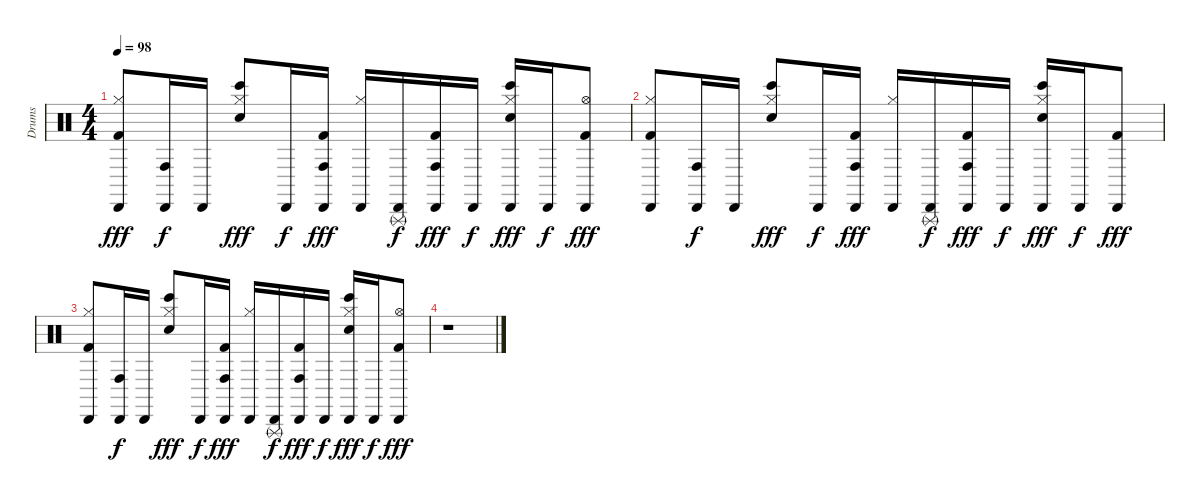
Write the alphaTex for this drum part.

\track ("Drums" "Drums") {instrument percussion}
\staff {score}
\articulation defaults
\ts (4 4)
\tempo 98
\clef neutral
\ks c
("Kick (hit) 2" "Hi-Hat (closed)" "Cabasa (hit)").8{dy fff} ("Conga high (hit)" "Cabasa (hit)").16{dy f} "Cabasa (hit)".16 ("Bongo High (hit)" "Snare (hit) 2" "Hi-Hat (closed)").8{dy fff} "Cabasa (hit)".16{dy f} ("Conga high (hit)" "Kick (hit) 2" "Cabasa (hit)").16{dy fff} ("Hi-Hat (closed)" "Cabasa (hit)").16 ("Triangle (rnute)" "Cabasa (hit)").16{dy f} ("Conga high (hit)" "Kick (hit) 2" "Cabasa (hit)").16{dy fff} "Cabasa (hit)".16{dy f} ("Bongo High (hit)" "Snare (hit) 2" "Hi-Hat (closed)" "Cabasa (hit)").16{dy fff} "Cabasa (hit)".16{dy f} ("Kick (hit) 2" "Hi-Hat (open)" "Cabasa (hit)").8{dy fff} |
("Kick (hit) 2" "Cabasa (hit)" "Hi-Hat (closed)").8 ("Conga high (hit)" "Cabasa (hit)").16{dy f} "Cabasa (hit)".16 ("Bongo High (hit)" "Snare (hit) 2" "Hi-Hat (closed)").8{dy fff} "Cabasa (hit)".16{dy f} ("Conga high (hit)" "Kick (hit) 2" "Cabasa (hit)").16{dy fff} ("Hi-Hat (closed)" "Cabasa (hit)").16 ("Triangle (rnute)" "Cabasa (hit)").16{dy f} ("Conga high (hit)" "Kick (hit) 2" "Cabasa (hit)").16{dy fff} "Cabasa (hit)".16{dy f} ("Bongo High (hit)" "Snare (hit) 2" "Hi-Hat (closed)" "Cabasa (hit)").16{dy fff} "Cabasa (hit)".16{dy f} ("Kick (hit) 2" "Cabasa (hit)").8{dy fff} |
("Kick (hit) 2" "Hi-Hat (closed)" "Cabasa (hit)").8 ("Conga high (hit)" "Cabasa (hit)").16{dy f} "Cabasa (hit)".16 ("Bongo High (hit)" "Snare (hit) 2" "Hi-Hat (closed)").8{dy fff} "Cabasa (hit)".16{dy f} ("Conga high (hit)" "Kick (hit) 2" "Cabasa (hit)").16{dy fff} ("Hi-Hat (closed)" "Cabasa (hit)").16 ("Triangle (rnute)" "Cabasa (hit)").16{dy f} ("Conga high (hit)" "Kick (hit) 2" "Cabasa (hit)").16{dy fff} "Cabasa (hit)".16{dy f} ("Bongo High (hit)" "Snare (hit) 2" "Hi-Hat (closed)" "Cabasa (hit)").16{dy fff} "Cabasa (hit)".16{dy f} ("Kick (hit) 2" "Hi-Hat (open)" "Cabasa (hit)").8{dy fff} |
r.1
